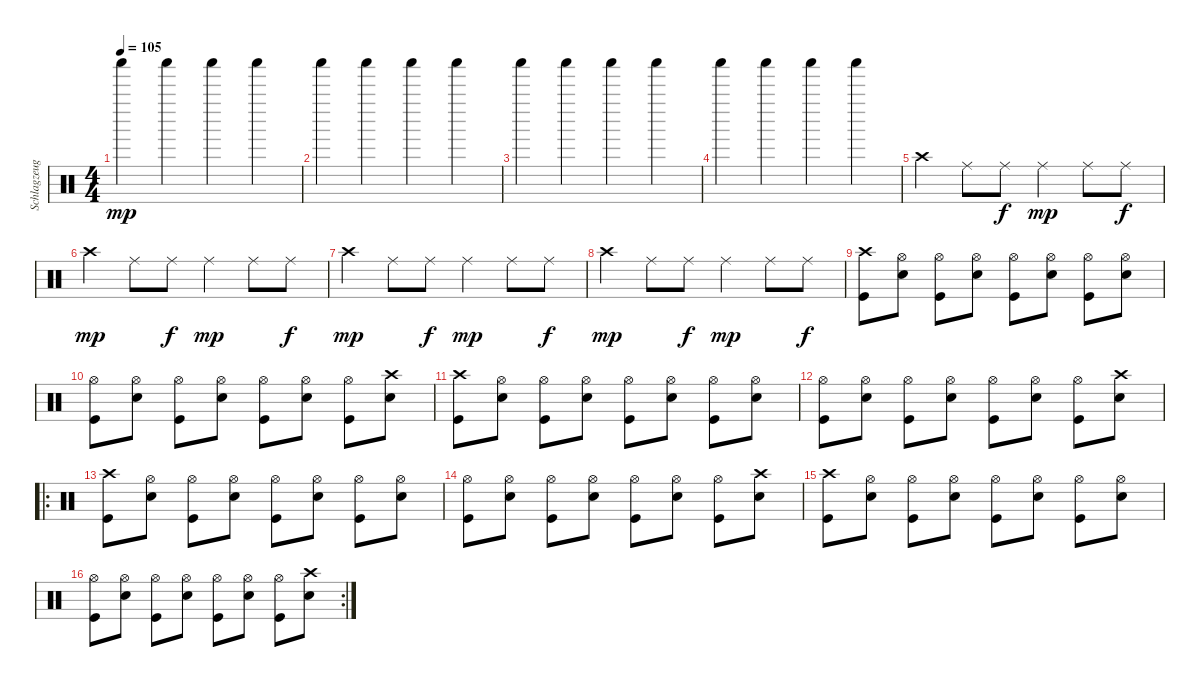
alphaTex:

\track ("Schlagzeug" "Schlagzeug") {instrument percussion}
\staff {score}
\articulation defaults
\ts (4 4)
\tempo 105
\clef neutral
\ks c "Shaker (hit)".4{dy mp} "Shaker (hit)".4 "Shaker (hit)".4 "Shaker (hit)".4
|
"Shaker (hit)".4 "Shaker (hit)".4 "Shaker (hit)".4 "Shaker (hit)".4 |
"Shaker (hit)".4 "Shaker (hit)".4 "Shaker (hit)".4 "Shaker (hit)".4 |
"Shaker (hit)".4 "Shaker (hit)".4 "Shaker (hit)".4 "Shaker (hit)".4 |
"Crash high (hit)".4 "Ride (middle)".8 "Ride (middle)".8{dy f} "Ride (middle)".4{dy mp} "Ride (middle)".8 "Ride (middle)".8{dy f} |
"Crash high (hit)".4{dy mp} "Ride (middle)".8 "Ride (middle)".8{dy f} "Ride (middle)".4{dy mp} "Ride (middle)".8 "Ride (middle)".8{dy f} |
"Crash high (hit)".4{dy mp} "Ride (middle)".8 "Ride (middle)".8{dy f} "Ride (middle)".4{dy mp} "Ride (middle)".8 "Ride (middle)".8{dy f} |
"Crash high (hit)".4{dy mp} "Ride (middle)".8 "Ride (middle)".8{dy f} "Ride (middle)".4{dy mp} "Ride (middle)".8 "Ride (middle)".8{dy f} |
("Crash high (hit)" "Kick (hit)").8 ("Hi-Hat (open)" "Snare (hit) 2").8 ("Hi-Hat (open)" "Kick (hit)").8 ("Hi-Hat (open)" "Snare (hit) 2").8 ("Hi-Hat (open)" "Kick (hit)").8 ("Hi-Hat (open)" "Snare (hit) 2").8 ("Hi-Hat (open)" "Kick (hit)").8 ("Hi-Hat (open)" "Snare (hit) 2").8 |
("Hi-Hat (open)" "Kick (hit)").8 ("Hi-Hat (open)" "Snare (hit) 2").8 ("Hi-Hat (open)" "Kick (hit)").8 ("Hi-Hat (open)" "Snare (hit) 2").8 ("Hi-Hat (open)" "Kick (hit)").8 ("Hi-Hat (open)" "Snare (hit) 2").8 ("Hi-Hat (open)" "Kick (hit)").8 ("Crash high (hit)" "Snare (hit) 2").8 |
("Crash high (hit)" "Kick (hit)").8 ("Hi-Hat (open)" "Snare (hit) 2").8 ("Hi-Hat (open)" "Kick (hit)").8 ("Hi-Hat (open)" "Snare (hit) 2").8 ("Hi-Hat (open)" "Kick (hit)").8 ("Hi-Hat (open)" "Snare (hit) 2").8 ("Hi-Hat (open)" "Kick (hit)").8 ("Hi-Hat (open)" "Snare (hit) 2").8 |
("Hi-Hat (open)" "Kick (hit)").8 ("Hi-Hat (open)" "Snare (hit) 2").8 ("Hi-Hat (open)" "Kick (hit)").8 ("Hi-Hat (open)" "Snare (hit) 2").8 ("Hi-Hat (open)" "Kick (hit)").8 ("Hi-Hat (open)" "Snare (hit) 2").8 ("Hi-Hat (open)" "Kick (hit)").8 ("Crash high (hit)" "Snare (hit) 2").8 |
\ro
("Crash high (hit)" "Kick (hit)").8 ("Hi-Hat (open)" "Snare (hit) 2").8 ("Hi-Hat (open)" "Kick (hit)").8 ("Hi-Hat (open)" "Snare (hit) 2").8 ("Hi-Hat (open)" "Kick (hit)").8 ("Hi-Hat (open)" "Snare (hit) 2").8 ("Hi-Hat (open)" "Kick (hit)").8 ("Hi-Hat (open)" "Snare (hit) 2").8 |
("Hi-Hat (open)" "Kick (hit)").8 ("Hi-Hat (open)" "Snare (hit) 2").8 ("Hi-Hat (open)" "Kick (hit)").8 ("Hi-Hat (open)" "Snare (hit) 2").8 ("Hi-Hat (open)" "Kick (hit)").8 ("Hi-Hat (open)" "Snare (hit) 2").8 ("Hi-Hat (open)" "Kick (hit)").8 ("Crash high (hit)" "Snare (hit) 2").8 |
("Crash high (hit)" "Kick (hit)").8 ("Hi-Hat (open)" "Snare (hit) 2").8 ("Hi-Hat (open)" "Kick (hit)").8 ("Hi-Hat (open)" "Snare (hit) 2").8 ("Hi-Hat (open)" "Kick (hit)").8 ("Hi-Hat (open)" "Snare (hit) 2").8 ("Hi-Hat (open)" "Kick (hit)").8 ("Hi-Hat (open)" "Snare (hit) 2").8 |
\rc 2
("Hi-Hat (open)" "Kick (hit)").8 ("Hi-Hat (open)" "Snare (hit) 2").8 ("Hi-Hat (open)" "Kick (hit)").8 ("Hi-Hat (open)" "Snare (hit) 2").8 ("Hi-Hat (open)" "Kick (hit)").8 ("Hi-Hat (open)" "Snare (hit) 2").8 ("Hi-Hat (open)" "Kick (hit)").8 ("Crash high (hit)" "Snare (hit) 2").8
